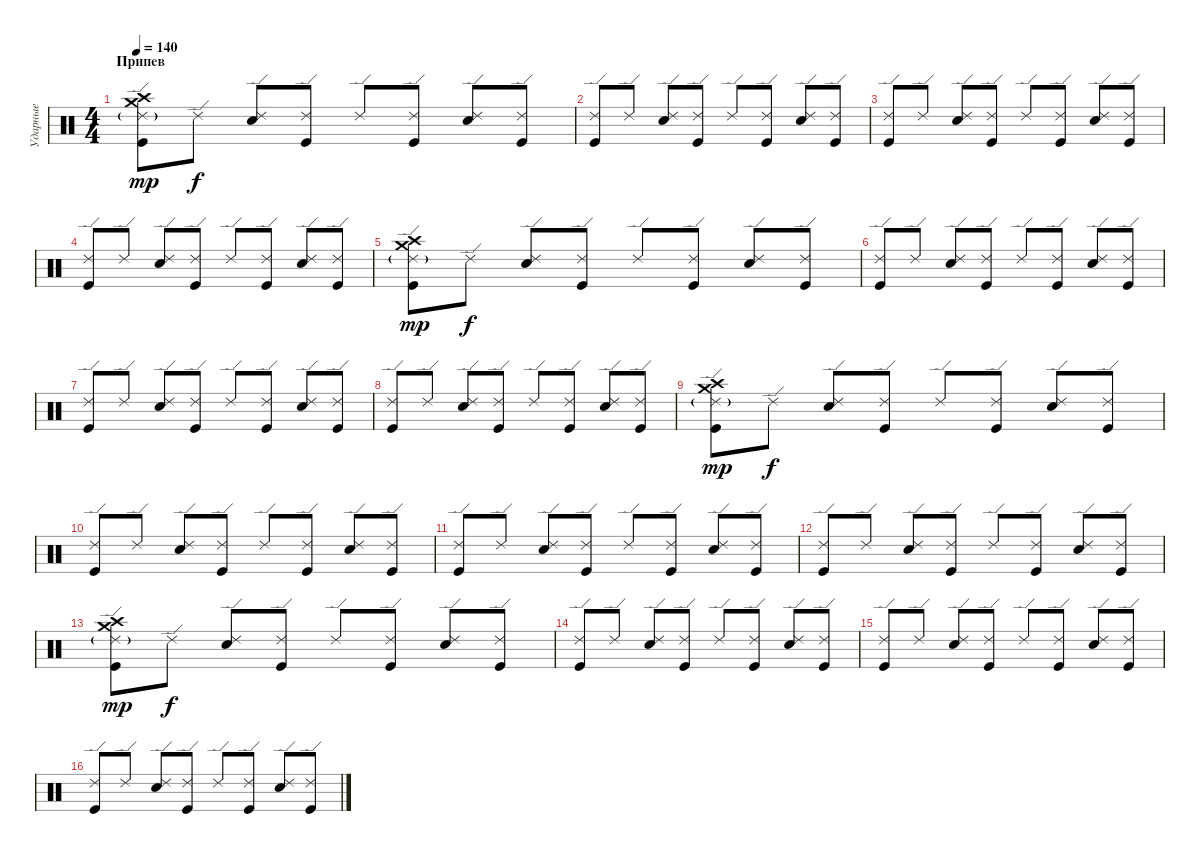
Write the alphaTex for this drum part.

\track ("Ударные" "Ударные") {instrument percussion}
\staff {score}
\articulation defaults
\ts (4 4)
\section ("" "Припев")
\tempo 140
\clef neutral
\ks c
("Crash medium (hit)" "Crash high (hit)" "Ride (edge) 2"{g} "Kick (hit)").8{dy mp} "Ride (edge) 2".8{dy f} ("Ride (edge) 2" "Electric Snare (hit)").8 ("Ride (edge) 2" "Kick (hit)").8 "Ride (edge) 2".8 ("Ride (edge) 2" "Kick (hit)").8 ("Ride (edge) 2" "Electric Snare (hit)").8 ("Ride (edge) 2" "Kick (hit)").8 |
("Ride (edge) 2" "Kick (hit)").8 "Ride (edge) 2".8 ("Ride (edge) 2" "Electric Snare (hit)").8 ("Ride (edge) 2" "Kick (hit)").8 "Ride (edge) 2".8 ("Ride (edge) 2" "Kick (hit)").8 ("Ride (edge) 2" "Electric Snare (hit)").8 ("Ride (edge) 2" "Kick (hit)").8 |
("Ride (edge) 2" "Kick (hit)").8 "Ride (edge) 2".8 ("Ride (edge) 2" "Electric Snare (hit)").8 ("Ride (edge) 2" "Kick (hit)").8 "Ride (edge) 2".8 ("Ride (edge) 2" "Kick (hit)").8 ("Ride (edge) 2" "Electric Snare (hit)").8 ("Ride (edge) 2" "Kick (hit)").8 |
("Ride (edge) 2" "Kick (hit)").8 "Ride (edge) 2".8 ("Ride (edge) 2" "Electric Snare (hit)").8 ("Ride (edge) 2" "Kick (hit)").8 "Ride (edge) 2".8 ("Ride (edge) 2" "Kick (hit)").8 ("Ride (edge) 2" "Electric Snare (hit)").8 ("Ride (edge) 2" "Kick (hit)").8 |
("Crash medium (hit)" "Crash high (hit)" "Ride (edge) 2"{g} "Kick (hit)").8{dy mp} "Ride (edge) 2".8{dy f} ("Ride (edge) 2" "Electric Snare (hit)").8 ("Ride (edge) 2" "Kick (hit)").8 "Ride (edge) 2".8 ("Ride (edge) 2" "Kick (hit)").8 ("Ride (edge) 2" "Electric Snare (hit)").8 ("Ride (edge) 2" "Kick (hit)").8 |
("Ride (edge) 2" "Kick (hit)").8 "Ride (edge) 2".8 ("Ride (edge) 2" "Electric Snare (hit)").8 ("Ride (edge) 2" "Kick (hit)").8 "Ride (edge) 2".8 ("Ride (edge) 2" "Kick (hit)").8 ("Ride (edge) 2" "Electric Snare (hit)").8 ("Ride (edge) 2" "Kick (hit)").8 |
("Ride (edge) 2" "Kick (hit)").8 "Ride (edge) 2".8 ("Ride (edge) 2" "Electric Snare (hit)").8 ("Ride (edge) 2" "Kick (hit)").8 "Ride (edge) 2".8 ("Ride (edge) 2" "Kick (hit)").8 ("Ride (edge) 2" "Electric Snare (hit)").8 ("Ride (edge) 2" "Kick (hit)").8 |
("Ride (edge) 2" "Kick (hit)").8 "Ride (edge) 2".8 ("Ride (edge) 2" "Electric Snare (hit)").8 ("Ride (edge) 2" "Kick (hit)").8 "Ride (edge) 2".8 ("Ride (edge) 2" "Kick (hit)").8 ("Ride (edge) 2" "Electric Snare (hit)").8 ("Ride (edge) 2" "Kick (hit)").8 |
("Crash medium (hit)" "Crash high (hit)" "Ride (edge) 2"{g} "Kick (hit)").8{dy mp} "Ride (edge) 2".8{dy f} ("Ride (edge) 2" "Electric Snare (hit)").8 ("Ride (edge) 2" "Kick (hit)").8 "Ride (edge) 2".8 ("Ride (edge) 2" "Kick (hit)").8 ("Ride (edge) 2" "Electric Snare (hit)").8 ("Ride (edge) 2" "Kick (hit)").8 |
("Ride (edge) 2" "Kick (hit)").8 "Ride (edge) 2".8 ("Ride (edge) 2" "Electric Snare (hit)").8 ("Ride (edge) 2" "Kick (hit)").8 "Ride (edge) 2".8 ("Ride (edge) 2" "Kick (hit)").8 ("Ride (edge) 2" "Electric Snare (hit)").8 ("Ride (edge) 2" "Kick (hit)").8 |
("Ride (edge) 2" "Kick (hit)").8 "Ride (edge) 2".8 ("Ride (edge) 2" "Electric Snare (hit)").8 ("Ride (edge) 2" "Kick (hit)").8 "Ride (edge) 2".8 ("Ride (edge) 2" "Kick (hit)").8 ("Ride (edge) 2" "Electric Snare (hit)").8 ("Ride (edge) 2" "Kick (hit)").8 |
("Ride (edge) 2" "Kick (hit)").8 "Ride (edge) 2".8 ("Ride (edge) 2" "Electric Snare (hit)").8 ("Ride (edge) 2" "Kick (hit)").8 "Ride (edge) 2".8 ("Ride (edge) 2" "Kick (hit)").8 ("Ride (edge) 2" "Electric Snare (hit)").8 ("Ride (edge) 2" "Kick (hit)").8 |
("Crash medium (hit)" "Crash high (hit)" "Ride (edge) 2"{g} "Kick (hit)").8{dy mp} "Ride (edge) 2".8{dy f} ("Ride (edge) 2" "Electric Snare (hit)").8 ("Ride (edge) 2" "Kick (hit)").8 "Ride (edge) 2".8 ("Ride (edge) 2" "Kick (hit)").8 ("Ride (edge) 2" "Electric Snare (hit)").8 ("Ride (edge) 2" "Kick (hit)").8 |
("Ride (edge) 2" "Kick (hit)").8 "Ride (edge) 2".8 ("Ride (edge) 2" "Electric Snare (hit)").8 ("Ride (edge) 2" "Kick (hit)").8 "Ride (edge) 2".8 ("Ride (edge) 2" "Kick (hit)").8 ("Ride (edge) 2" "Electric Snare (hit)").8 ("Ride (edge) 2" "Kick (hit)").8 |
("Ride (edge) 2" "Kick (hit)").8 "Ride (edge) 2".8 ("Ride (edge) 2" "Electric Snare (hit)").8 ("Ride (edge) 2" "Kick (hit)").8 "Ride (edge) 2".8 ("Ride (edge) 2" "Kick (hit)").8 ("Ride (edge) 2" "Electric Snare (hit)").8 ("Ride (edge) 2" "Kick (hit)").8 |
("Ride (edge) 2" "Kick (hit)").8 "Ride (edge) 2".8 ("Ride (edge) 2" "Electric Snare (hit)").8 ("Ride (edge) 2" "Kick (hit)").8 "Ride (edge) 2".8 ("Ride (edge) 2" "Kick (hit)").8 ("Ride (edge) 2" "Electric Snare (hit)").8 ("Ride (edge) 2" "Kick (hit)").8
